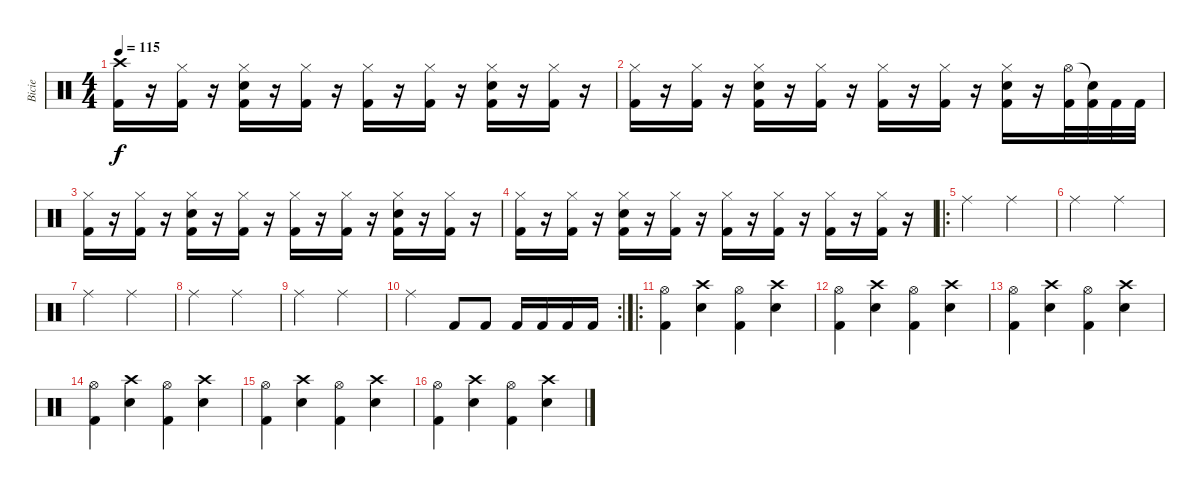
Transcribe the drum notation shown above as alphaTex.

\track ("Bicie" "Bicie") {instrument percussion}
\staff {score}
\articulation defaults
\ts (4 4)
\tempo 115
\clef neutral
\ks c
("Crash high (hit)" "Kick (hit) 2").16{dy f} r.16 ("Hi-Hat (closed)" "Kick (hit) 2").16 r.16 ("Hi-Hat (closed)" "Electric Snare (hit)" "Kick (hit) 2").16 r.16 ("Hi-Hat (closed)" "Kick (hit) 2").16 r.16 ("Hi-Hat (closed)" "Kick (hit) 2").16 r.16 ("Hi-Hat (closed)" "Kick (hit) 2").16 r.16 ("Hi-Hat (closed)" "Electric Snare (hit)" "Kick (hit) 2").16 r.16 ("Hi-Hat (closed)" "Kick (hit) 2").16 r.16 |
("Hi-Hat (closed)" "Kick (hit) 2").16 r.16 ("Hi-Hat (closed)" "Kick (hit) 2").16 r.16 ("Hi-Hat (closed)" "Electric Snare (hit)" "Kick (hit) 2").16 r.16 ("Hi-Hat (closed)" "Kick (hit) 2").16 r.16 ("Hi-Hat (closed)" "Kick (hit) 2").16 r.16 ("Hi-Hat (closed)" "Kick (hit) 2").16 r.16 ("Hi-Hat (closed)" "Electric Snare (hit)" "Kick (hit) 2").16 r.16 ("Hi-Hat (open)" "Kick (hit) 2").32 ("Snare (hit)"{t} "Kick (hit) 2").32 "Kick (hit) 2".32 "Kick (hit) 2".32 |
("Hi-Hat (closed)" "Kick (hit) 2").16 r.16 ("Hi-Hat (closed)" "Kick (hit) 2").16 r.16 ("Hi-Hat (closed)" "Electric Snare (hit)" "Kick (hit) 2").16 r.16 ("Hi-Hat (closed)" "Kick (hit) 2").16 r.16 ("Hi-Hat (closed)" "Kick (hit) 2").16 r.16 ("Hi-Hat (closed)" "Kick (hit) 2").16 r.16 ("Hi-Hat (closed)" "Electric Snare (hit)" "Kick (hit) 2").16 r.16 ("Hi-Hat (closed)" "Kick (hit) 2").16 r.16 |
("Hi-Hat (closed)" "Kick (hit) 2").16 r.16 ("Hi-Hat (closed)" "Kick (hit) 2").16 r.16 ("Hi-Hat (closed)" "Electric Snare (hit)" "Kick (hit) 2").16 r.16 ("Hi-Hat (closed)" "Kick (hit) 2").16 r.16 ("Hi-Hat (closed)" "Kick (hit) 2").16 r.16 ("Hi-Hat (closed)" "Kick (hit) 2").16 r.16 ("Hi-Hat (closed)" "Kick (hit) 2").16 r.16 ("Hi-Hat (closed)" "Kick (hit) 2").16 r.16 |
\ro "Ride (middle)".2 "Ride (middle)".2
|
"Ride (middle)".2 "Ride (middle)".2 |
"Ride (middle)".2 "Ride (middle)".2 |
"Ride (middle)".2 "Ride (middle)".2 |
"Ride (middle)".2 "Ride (middle)".2 |
\rc 2 "Ride (middle)".2 "Kick (hit) 2".8 "Kick (hit) 2".8 "Kick (hit) 2".16 "Kick (hit) 2".16 "Kick (hit) 2".16 "Kick (hit) 2".16
|
\ro
("Hi-Hat (open)" "Kick (hit) 2").4 ("Crash high (hit)" "Electric Snare (hit)").4 ("Hi-Hat (open)" "Kick (hit) 2").4 ("Crash high (hit)" "Electric Snare (hit)").4 |
("Hi-Hat (open)" "Kick (hit) 2").4 ("Crash high (hit)" "Electric Snare (hit)").4 ("Hi-Hat (open)" "Kick (hit) 2").4 ("Crash high (hit)" "Electric Snare (hit)").4 |
("Hi-Hat (open)" "Kick (hit) 2").4 ("Crash high (hit)" "Electric Snare (hit)").4 ("Hi-Hat (open)" "Kick (hit) 2").4 ("Crash high (hit)" "Electric Snare (hit)").4 |
("Hi-Hat (open)" "Kick (hit) 2").4 ("Crash high (hit)" "Electric Snare (hit)").4 ("Hi-Hat (open)" "Kick (hit) 2").4 ("Crash high (hit)" "Electric Snare (hit)").4 |
("Hi-Hat (open)" "Kick (hit) 2").4 ("Crash high (hit)" "Electric Snare (hit)").4 ("Hi-Hat (open)" "Kick (hit) 2").4 ("Crash high (hit)" "Electric Snare (hit)").4 |
("Hi-Hat (open)" "Kick (hit) 2").4 ("Crash high (hit)" "Electric Snare (hit)").4 ("Hi-Hat (open)" "Kick (hit) 2").4 ("Crash high (hit)" "Electric Snare (hit)").4
